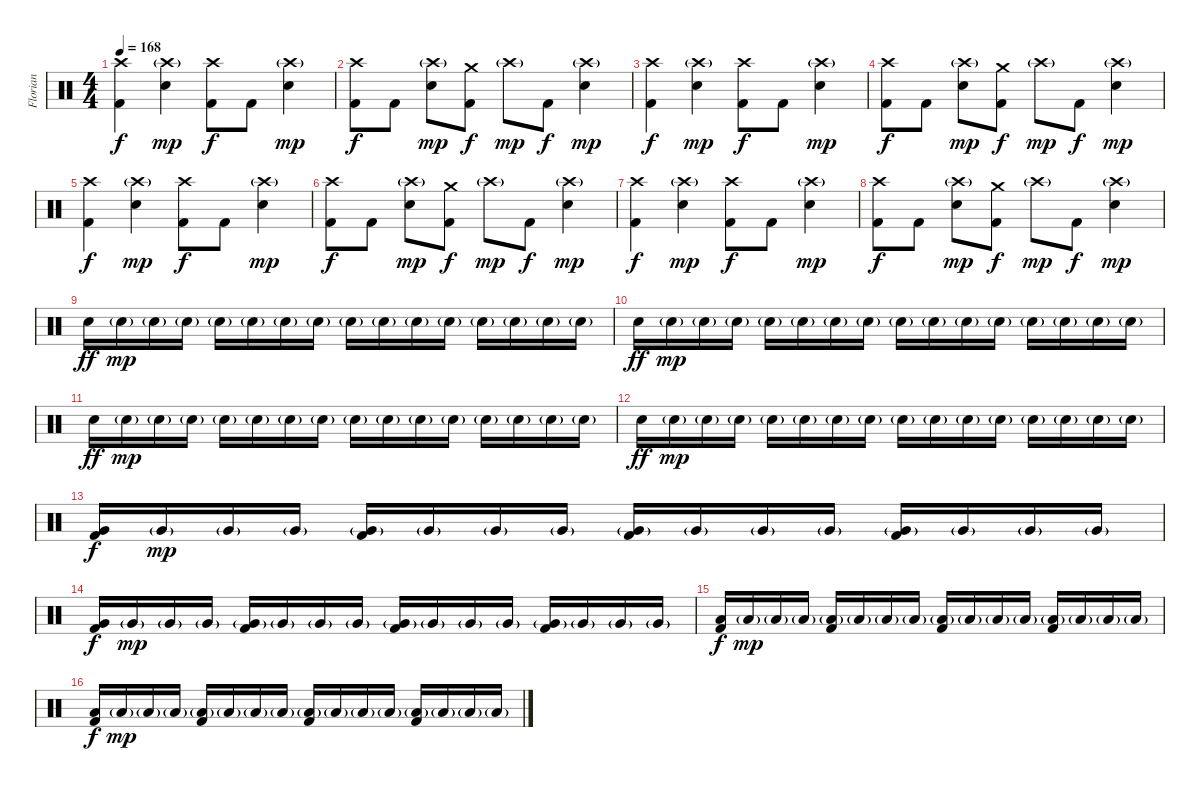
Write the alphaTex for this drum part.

\track ("Florian" "Florian") {instrument percussion}
\staff {score}
\articulation defaults
\ts (4 4)
\tempo 168
\clef neutral
\ks c
("Crash high (hit)" "Kick (hit) 2").4{dy f} ("Crash high (hit)"{g} "Snare (hit) 2").4{dy mp} ("Crash high (hit)" "Kick (hit) 2").8{dy f} "Kick (hit) 2".8 ("Crash high (hit)"{g} "Snare (hit) 2").4{dy mp} |
("Crash high (hit)" "Kick (hit) 2").8{dy f} "Kick (hit) 2".8 ("Crash high (hit)"{g} "Snare (hit) 2").8{dy mp} ("Crash medium (hit)" "Kick (hit) 2").8{dy f} "Crash high (hit)"{g}.8{dy mp} "Kick (hit) 2".8{dy f} ("Crash high (hit)"{g} "Snare (hit) 2").4{dy mp} |
("Crash high (hit)" "Kick (hit) 2").4{dy f} ("Crash high (hit)"{g} "Snare (hit) 2").4{dy mp} ("Crash high (hit)" "Kick (hit) 2").8{dy f} "Kick (hit) 2".8 ("Crash high (hit)"{g} "Snare (hit) 2").4{dy mp} |
("Crash high (hit)" "Kick (hit) 2").8{dy f} "Kick (hit) 2".8 ("Crash high (hit)"{g} "Snare (hit) 2").8{dy mp} ("Crash medium (hit)" "Kick (hit) 2").8{dy f} "Crash high (hit)"{g}.8{dy mp} "Kick (hit) 2".8{dy f} ("Crash high (hit)"{g} "Snare (hit) 2").4{dy mp} |
("Crash high (hit)" "Kick (hit) 2").4{dy f} ("Crash high (hit)"{g} "Snare (hit) 2").4{dy mp} ("Crash high (hit)" "Kick (hit) 2").8{dy f} "Kick (hit) 2".8 ("Crash high (hit)"{g} "Snare (hit) 2").4{dy mp} |
("Crash high (hit)" "Kick (hit) 2").8{dy f} "Kick (hit) 2".8 ("Crash high (hit)"{g} "Snare (hit) 2").8{dy mp} ("Crash medium (hit)" "Kick (hit) 2").8{dy f} "Crash high (hit)"{g}.8{dy mp} "Kick (hit) 2".8{dy f} ("Crash high (hit)"{g} "Snare (hit) 2").4{dy mp} |
("Crash high (hit)" "Kick (hit) 2").4{dy f} ("Crash high (hit)"{g} "Snare (hit) 2").4{dy mp} ("Crash high (hit)" "Kick (hit) 2").8{dy f} "Kick (hit) 2".8 ("Crash high (hit)"{g} "Snare (hit) 2").4{dy mp} |
("Crash high (hit)" "Kick (hit) 2").8{dy f} "Kick (hit) 2".8 ("Crash high (hit)"{g} "Snare (hit) 2").8{dy mp} ("Crash medium (hit)" "Kick (hit) 2").8{dy f} "Crash high (hit)"{g}.8{dy mp} "Kick (hit) 2".8{dy f} ("Crash high (hit)"{g} "Snare (hit) 2").4{dy mp} |
"Snare (hit) 2".16{dy ff} "Snare (hit) 2"{g}.16{dy mp} "Snare (hit) 2"{g}.16 "Snare (hit) 2"{g}.16 "Snare (hit) 2"{g}.16 "Snare (hit) 2"{g}.16 "Snare (hit) 2"{g}.16 "Snare (hit) 2"{g}.16 "Snare (hit) 2"{g}.16 "Snare (hit) 2"{g}.16 "Snare (hit) 2"{g}.16 "Snare (hit) 2"{g}.16 "Snare (hit) 2"{g}.16 "Snare (hit) 2"{g}.16 "Snare (hit) 2"{g}.16 "Snare (hit) 2"{g}.16 |
"Snare (hit) 2".16{dy ff} "Snare (hit) 2"{g}.16{dy mp} "Snare (hit) 2"{g}.16 "Snare (hit) 2"{g}.16 "Snare (hit) 2"{g}.16 "Snare (hit) 2"{g}.16 "Snare (hit) 2"{g}.16 "Snare (hit) 2"{g}.16 "Snare (hit) 2"{g}.16 "Snare (hit) 2"{g}.16 "Snare (hit) 2"{g}.16 "Snare (hit) 2"{g}.16 "Snare (hit) 2"{g}.16 "Snare (hit) 2"{g}.16 "Snare (hit) 2"{g}.16 "Snare (hit) 2"{g}.16 |
"Snare (hit) 2".16{dy ff} "Snare (hit) 2"{g}.16{dy mp} "Snare (hit) 2"{g}.16 "Snare (hit) 2"{g}.16 "Snare (hit) 2"{g}.16 "Snare (hit) 2"{g}.16 "Snare (hit) 2"{g}.16 "Snare (hit) 2"{g}.16 "Snare (hit) 2"{g}.16 "Snare (hit) 2"{g}.16 "Snare (hit) 2"{g}.16 "Snare (hit) 2"{g}.16 "Snare (hit) 2"{g}.16 "Snare (hit) 2"{g}.16 "Snare (hit) 2"{g}.16 "Snare (hit) 2"{g}.16 |
"Snare (hit) 2".16{dy ff} "Snare (hit) 2"{g}.16{dy mp} "Snare (hit) 2"{g}.16 "Snare (hit) 2"{g}.16 "Snare (hit) 2"{g}.16 "Snare (hit) 2"{g}.16 "Snare (hit) 2"{g}.16 "Snare (hit) 2"{g}.16 "Snare (hit) 2"{g}.16 "Snare (hit) 2"{g}.16 "Snare (hit) 2"{g}.16 "Snare (hit) 2"{g}.16 "Snare (hit) 2"{g}.16 "Snare (hit) 2"{g}.16 "Snare (hit) 2"{g}.16 "Snare (hit) 2"{g}.16 |
("Very Low Tom (hit)" "Kick (hit) 2").16{dy f} "Very Low Tom (hit)"{g}.16{dy mp} "Very Low Tom (hit)"{g}.16 "Very Low Tom (hit)"{g}.16 ("Very Low Tom (hit)"{g} "Kick (hit) 2").16 "Very Low Tom (hit)"{g}.16 "Very Low Tom (hit)"{g}.16 "Very Low Tom (hit)"{g}.16 ("Very Low Tom (hit)"{g} "Kick (hit) 2").16 "Very Low Tom (hit)"{g}.16 "Very Low Tom (hit)"{g}.16 "Very Low Tom (hit)"{g}.16 ("Very Low Tom (hit)"{g} "Kick (hit) 2").16 "Very Low Tom (hit)"{g}.16 "Very Low Tom (hit)"{g}.16 "Very Low Tom (hit)"{g}.16 |
("Very Low Tom (hit)" "Kick (hit) 2").16{dy f} "Very Low Tom (hit)"{g}.16{dy mp} "Very Low Tom (hit)"{g}.16 "Very Low Tom (hit)"{g}.16 ("Very Low Tom (hit)"{g} "Kick (hit) 2").16 "Very Low Tom (hit)"{g}.16 "Very Low Tom (hit)"{g}.16 "Very Low Tom (hit)"{g}.16 ("Very Low Tom (hit)"{g} "Kick (hit) 2").16 "Very Low Tom (hit)"{g}.16 "Very Low Tom (hit)"{g}.16 "Very Low Tom (hit)"{g}.16 ("Very Low Tom (hit)"{g} "Kick (hit) 2").16 "Very Low Tom (hit)"{g}.16 "Very Low Tom (hit)"{g}.16 "Very Low Tom (hit)"{g}.16 |
("Low Floor Tom (hit)" "Kick (hit) 2").16{dy f} "Low Floor Tom (hit)"{g}.16{dy mp} "Low Floor Tom (hit)"{g}.16 "Low Floor Tom (hit)"{g}.16 ("Low Floor Tom (hit)"{g} "Kick (hit) 2").16 "Low Floor Tom (hit)"{g}.16 "Low Floor Tom (hit)"{g}.16 "Low Floor Tom (hit)"{g}.16 ("Low Floor Tom (hit)"{g} "Kick (hit) 2").16 "Low Floor Tom (hit)"{g}.16 "Low Floor Tom (hit)"{g}.16 "Low Floor Tom (hit)"{g}.16 ("Low Floor Tom (hit)"{g} "Kick (hit) 2").16 "Low Floor Tom (hit)"{g}.16 "Low Floor Tom (hit)"{g}.16 "Low Floor Tom (hit)"{g}.16 |
("Low Floor Tom (hit)" "Kick (hit) 2").16{dy f} "Low Floor Tom (hit)"{g}.16{dy mp} "Low Floor Tom (hit)"{g}.16 "Low Floor Tom (hit)"{g}.16 ("Low Floor Tom (hit)"{g} "Kick (hit) 2").16 "Low Floor Tom (hit)"{g}.16 "Low Floor Tom (hit)"{g}.16 "Low Floor Tom (hit)"{g}.16 ("Low Floor Tom (hit)"{g} "Kick (hit) 2").16 "Low Floor Tom (hit)"{g}.16 "Low Floor Tom (hit)"{g}.16 "Low Floor Tom (hit)"{g}.16 ("Low Floor Tom (hit)"{g} "Kick (hit) 2").16 "Low Floor Tom (hit)"{g}.16 "Low Floor Tom (hit)"{g}.16 "Low Floor Tom (hit)"{g}.16
